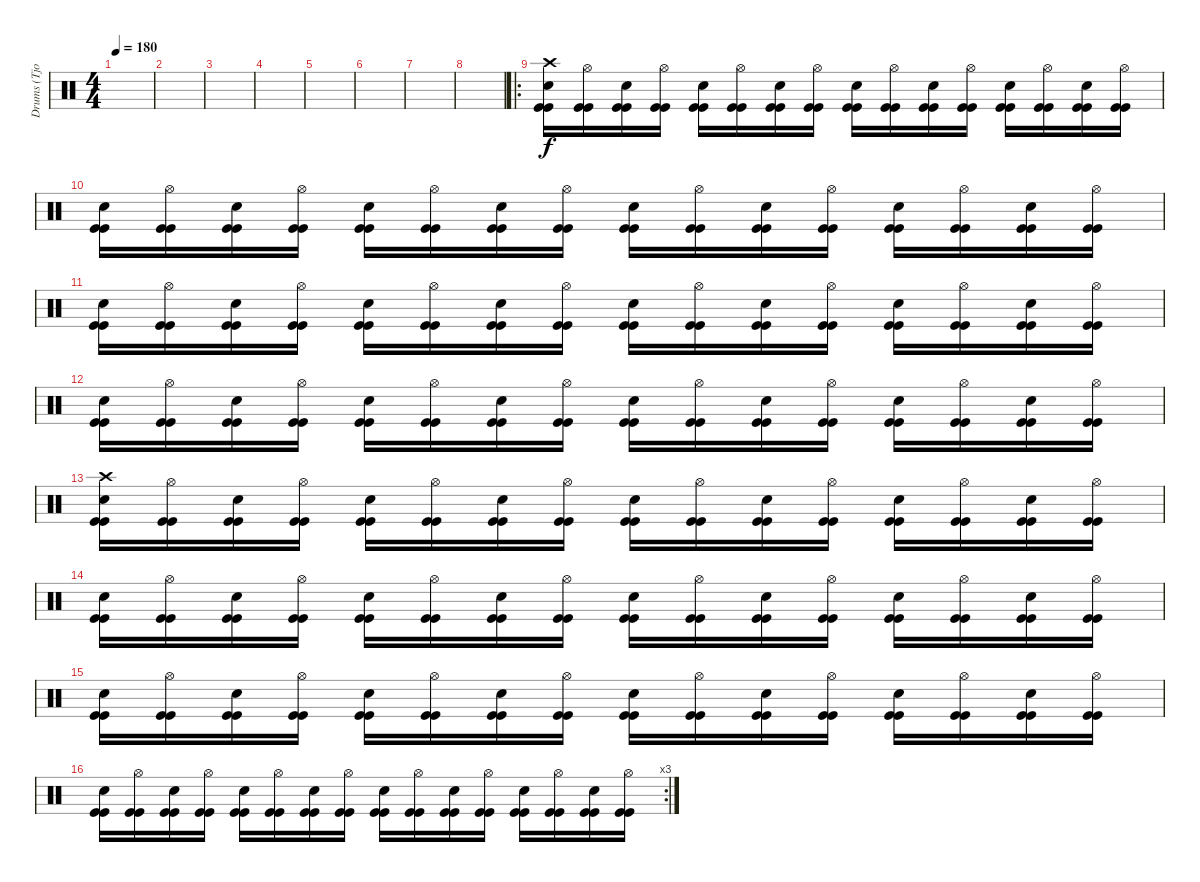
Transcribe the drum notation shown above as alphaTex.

\track ("Drums (Tjodalv)" "Drums (Tjo") {instrument percussion}
\staff {score}
\articulation defaults
\ts (4 4)
\tempo 180
\clef neutral
\ks c
|
|
|
|
|
|
|
|
\ro
("Snare (hit) 2" "Crash high (hit)" "Kick (hit)" "Kick (hit)").16 ("Hi-Hat (open)" "Kick (hit)" "Kick (hit)").16 ("Snare (hit) 2" "Kick (hit)" "Kick (hit)").16 ("Hi-Hat (open)" "Kick (hit)" "Kick (hit)").16 ("Snare (hit) 2" "Kick (hit)" "Kick (hit)").16 ("Hi-Hat (open)" "Kick (hit)" "Kick (hit)").16 ("Snare (hit) 2" "Kick (hit)" "Kick (hit)").16 ("Hi-Hat (open)" "Kick (hit)" "Kick (hit)").16 ("Snare (hit) 2" "Kick (hit)" "Kick (hit)").16 ("Hi-Hat (open)" "Kick (hit)" "Kick (hit)").16 ("Snare (hit) 2" "Kick (hit)" "Kick (hit)").16 ("Hi-Hat (open)" "Kick (hit)" "Kick (hit)").16 ("Snare (hit) 2" "Kick (hit)" "Kick (hit)").16 ("Hi-Hat (open)" "Kick (hit)" "Kick (hit)").16 ("Snare (hit) 2" "Kick (hit)" "Kick (hit)").16 ("Hi-Hat (open)" "Kick (hit)" "Kick (hit)").16 |
("Snare (hit) 2" "Kick (hit)" "Kick (hit)").16 ("Hi-Hat (open)" "Kick (hit)" "Kick (hit)").16 ("Snare (hit) 2" "Kick (hit)" "Kick (hit)").16 ("Hi-Hat (open)" "Kick (hit)" "Kick (hit)").16 ("Snare (hit) 2" "Kick (hit)" "Kick (hit)").16 ("Hi-Hat (open)" "Kick (hit)" "Kick (hit)").16 ("Snare (hit) 2" "Kick (hit)" "Kick (hit)").16 ("Hi-Hat (open)" "Kick (hit)" "Kick (hit)").16 ("Snare (hit) 2" "Kick (hit)" "Kick (hit)").16 ("Hi-Hat (open)" "Kick (hit)" "Kick (hit)").16 ("Snare (hit) 2" "Kick (hit)" "Kick (hit)").16 ("Hi-Hat (open)" "Kick (hit)" "Kick (hit)").16 ("Snare (hit) 2" "Kick (hit)" "Kick (hit)").16 ("Hi-Hat (open)" "Kick (hit)" "Kick (hit)").16 ("Snare (hit) 2" "Kick (hit)" "Kick (hit)").16 ("Hi-Hat (open)" "Kick (hit)" "Kick (hit)").16 |
("Snare (hit) 2" "Kick (hit)" "Kick (hit)").16 ("Hi-Hat (open)" "Kick (hit)" "Kick (hit)").16 ("Snare (hit) 2" "Kick (hit)" "Kick (hit)").16 ("Hi-Hat (open)" "Kick (hit)" "Kick (hit)").16 ("Snare (hit) 2" "Kick (hit)" "Kick (hit)").16 ("Hi-Hat (open)" "Kick (hit)" "Kick (hit)").16 ("Snare (hit) 2" "Kick (hit)" "Kick (hit)").16 ("Hi-Hat (open)" "Kick (hit)" "Kick (hit)").16 ("Snare (hit) 2" "Kick (hit)" "Kick (hit)").16 ("Hi-Hat (open)" "Kick (hit)" "Kick (hit)").16 ("Snare (hit) 2" "Kick (hit)" "Kick (hit)").16 ("Hi-Hat (open)" "Kick (hit)" "Kick (hit)").16 ("Snare (hit) 2" "Kick (hit)" "Kick (hit)").16 ("Hi-Hat (open)" "Kick (hit)" "Kick (hit)").16 ("Snare (hit) 2" "Kick (hit)" "Kick (hit)").16 ("Hi-Hat (open)" "Kick (hit)" "Kick (hit)").16 |
("Snare (hit) 2" "Kick (hit)" "Kick (hit)").16 ("Hi-Hat (open)" "Kick (hit)" "Kick (hit)").16 ("Snare (hit) 2" "Kick (hit)" "Kick (hit)").16 ("Hi-Hat (open)" "Kick (hit)" "Kick (hit)").16 ("Snare (hit) 2" "Kick (hit)" "Kick (hit)").16 ("Hi-Hat (open)" "Kick (hit)" "Kick (hit)").16 ("Snare (hit) 2" "Kick (hit)" "Kick (hit)").16 ("Hi-Hat (open)" "Kick (hit)" "Kick (hit)").16 ("Snare (hit) 2" "Kick (hit)" "Kick (hit)").16 ("Hi-Hat (open)" "Kick (hit)" "Kick (hit)").16 ("Snare (hit) 2" "Kick (hit)" "Kick (hit)").16 ("Hi-Hat (open)" "Kick (hit)" "Kick (hit)").16 ("Snare (hit) 2" "Kick (hit)" "Kick (hit)").16 ("Hi-Hat (open)" "Kick (hit)" "Kick (hit)").16 ("Snare (hit) 2" "Kick (hit)" "Kick (hit)").16 ("Hi-Hat (open)" "Kick (hit)" "Kick (hit)").16 |
("Snare (hit) 2" "Crash high (hit)" "Kick (hit)" "Kick (hit)").16 ("Hi-Hat (open)" "Kick (hit)" "Kick (hit)").16 ("Snare (hit) 2" "Kick (hit)" "Kick (hit)").16 ("Hi-Hat (open)" "Kick (hit)" "Kick (hit)").16 ("Snare (hit) 2" "Kick (hit)" "Kick (hit)").16 ("Hi-Hat (open)" "Kick (hit)" "Kick (hit)").16 ("Snare (hit) 2" "Kick (hit)" "Kick (hit)").16 ("Hi-Hat (open)" "Kick (hit)" "Kick (hit)").16 ("Snare (hit) 2" "Kick (hit)" "Kick (hit)").16 ("Hi-Hat (open)" "Kick (hit)" "Kick (hit)").16 ("Snare (hit) 2" "Kick (hit)" "Kick (hit)").16 ("Hi-Hat (open)" "Kick (hit)" "Kick (hit)").16 ("Snare (hit) 2" "Kick (hit)" "Kick (hit)").16 ("Hi-Hat (open)" "Kick (hit)" "Kick (hit)").16 ("Snare (hit) 2" "Kick (hit)" "Kick (hit)").16 ("Hi-Hat (open)" "Kick (hit)" "Kick (hit)").16 |
("Snare (hit) 2" "Kick (hit)" "Kick (hit)").16 ("Hi-Hat (open)" "Kick (hit)" "Kick (hit)").16 ("Snare (hit) 2" "Kick (hit)" "Kick (hit)").16 ("Hi-Hat (open)" "Kick (hit)" "Kick (hit)").16 ("Snare (hit) 2" "Kick (hit)" "Kick (hit)").16 ("Hi-Hat (open)" "Kick (hit)" "Kick (hit)").16 ("Snare (hit) 2" "Kick (hit)" "Kick (hit)").16 ("Hi-Hat (open)" "Kick (hit)" "Kick (hit)").16 ("Snare (hit) 2" "Kick (hit)" "Kick (hit)").16 ("Hi-Hat (open)" "Kick (hit)" "Kick (hit)").16 ("Snare (hit) 2" "Kick (hit)" "Kick (hit)").16 ("Hi-Hat (open)" "Kick (hit)" "Kick (hit)").16 ("Snare (hit) 2" "Kick (hit)" "Kick (hit)").16 ("Hi-Hat (open)" "Kick (hit)" "Kick (hit)").16 ("Snare (hit) 2" "Kick (hit)" "Kick (hit)").16 ("Hi-Hat (open)" "Kick (hit)" "Kick (hit)").16 |
("Snare (hit) 2" "Kick (hit)" "Kick (hit)").16 ("Hi-Hat (open)" "Kick (hit)" "Kick (hit)").16 ("Snare (hit) 2" "Kick (hit)" "Kick (hit)").16 ("Hi-Hat (open)" "Kick (hit)" "Kick (hit)").16 ("Snare (hit) 2" "Kick (hit)" "Kick (hit)").16 ("Hi-Hat (open)" "Kick (hit)" "Kick (hit)").16 ("Snare (hit) 2" "Kick (hit)" "Kick (hit)").16 ("Hi-Hat (open)" "Kick (hit)" "Kick (hit)").16 ("Snare (hit) 2" "Kick (hit)" "Kick (hit)").16 ("Hi-Hat (open)" "Kick (hit)" "Kick (hit)").16 ("Snare (hit) 2" "Kick (hit)" "Kick (hit)").16 ("Hi-Hat (open)" "Kick (hit)" "Kick (hit)").16 ("Snare (hit) 2" "Kick (hit)" "Kick (hit)").16 ("Hi-Hat (open)" "Kick (hit)" "Kick (hit)").16 ("Snare (hit) 2" "Kick (hit)" "Kick (hit)").16 ("Hi-Hat (open)" "Kick (hit)" "Kick (hit)").16 |
\rc 3
("Snare (hit) 2" "Kick (hit)" "Kick (hit)").16 ("Hi-Hat (open)" "Kick (hit)" "Kick (hit)").16 ("Snare (hit) 2" "Kick (hit)" "Kick (hit)").16 ("Hi-Hat (open)" "Kick (hit)" "Kick (hit)").16 ("Snare (hit) 2" "Kick (hit)" "Kick (hit)").16 ("Hi-Hat (open)" "Kick (hit)" "Kick (hit)").16 ("Snare (hit) 2" "Kick (hit)" "Kick (hit)").16 ("Hi-Hat (open)" "Kick (hit)" "Kick (hit)").16 ("Snare (hit) 2" "Kick (hit)" "Kick (hit)").16 ("Hi-Hat (open)" "Kick (hit)" "Kick (hit)").16 ("Snare (hit) 2" "Kick (hit)" "Kick (hit)").16 ("Hi-Hat (open)" "Kick (hit)" "Kick (hit)").16 ("Snare (hit) 2" "Kick (hit)" "Kick (hit)").16 ("Hi-Hat (open)" "Kick (hit)" "Kick (hit)").16 ("Snare (hit) 2" "Kick (hit)" "Kick (hit)").16 ("Hi-Hat (open)" "Kick (hit)" "Kick (hit)").16
